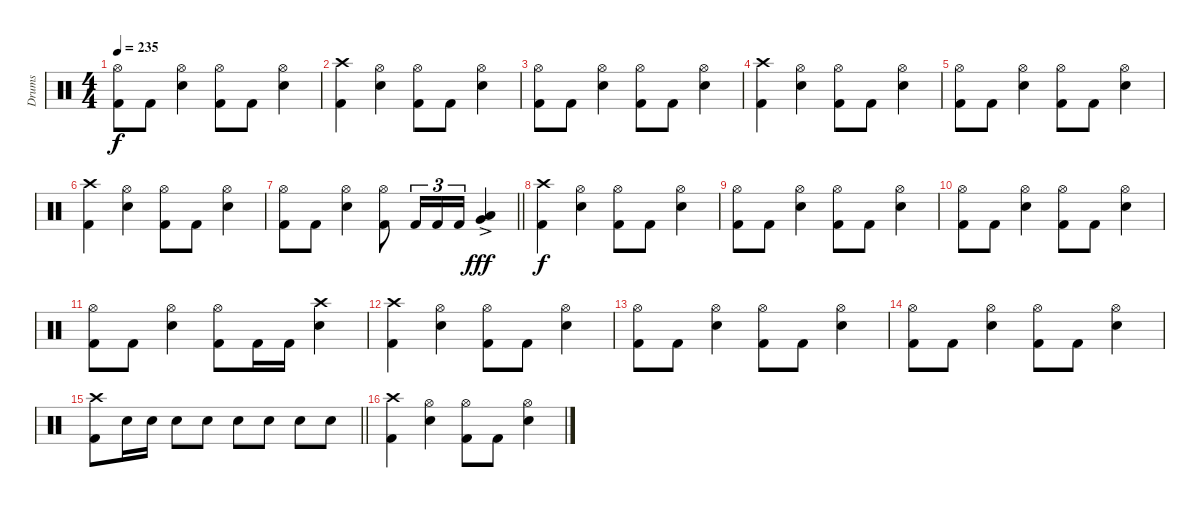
\track ("Drums" "Drums") {instrument percussion}
\staff {score}
\articulation defaults
\ts (4 4)
\tempo 235
\clef neutral
\ks c
("Hi-Hat (open)" "Kick (hit) 2").8{dy f} "Kick (hit) 2".8 ("Hi-Hat (open)" "Snare (hit) 2").4 ("Hi-Hat (open)" "Kick (hit) 2").8 "Kick (hit) 2".8 ("Hi-Hat (open)" "Snare (hit) 2").4 |
("Crash high (hit)" "Kick (hit) 2").4 ("Hi-Hat (open)" "Snare (hit) 2").4 ("Hi-Hat (open)" "Kick (hit) 2").8 "Kick (hit) 2".8 ("Hi-Hat (open)" "Snare (hit) 2").4 |
("Hi-Hat (open)" "Kick (hit) 2").8 "Kick (hit) 2".8 ("Hi-Hat (open)" "Snare (hit) 2").4 ("Hi-Hat (open)" "Kick (hit) 2").8 "Kick (hit) 2".8 ("Hi-Hat (open)" "Snare (hit) 2").4 |
("Crash high (hit)" "Kick (hit) 2").4 ("Hi-Hat (open)" "Snare (hit) 2").4 ("Hi-Hat (open)" "Kick (hit) 2").8 "Kick (hit) 2".8 ("Hi-Hat (open)" "Snare (hit) 2").4 |
("Hi-Hat (open)" "Kick (hit) 2").8 "Kick (hit) 2".8 ("Hi-Hat (open)" "Snare (hit) 2").4 ("Hi-Hat (open)" "Kick (hit) 2").8 "Kick (hit) 2".8 ("Hi-Hat (open)" "Snare (hit) 2").4 |
("Crash high (hit)" "Kick (hit) 2").4 ("Hi-Hat (open)" "Snare (hit) 2").4 ("Hi-Hat (open)" "Kick (hit) 2").8 "Kick (hit) 2".8 ("Hi-Hat (open)" "Snare (hit) 2").4 |
\barLineRight lightlight
("Hi-Hat (open)" "Kick (hit) 2").8 "Kick (hit) 2".8 ("Hi-Hat (open)" "Snare (hit) 2").4 ("Hi-Hat (open)" "Kick (hit) 2").8 "Kick (hit) 2".16{tu (3 2)} "Kick (hit) 2".16{tu (3 2)} "Kick (hit) 2".16{tu (3 2)} ("Low Tom (hit)"{ac} "Very Low Tom (hit)"{ac}).4{dy fff} |
("Crash high (hit)" "Kick (hit) 2").4{dy f} ("Hi-Hat (open)" "Snare (hit) 2").4 ("Hi-Hat (open)" "Kick (hit) 2").8 "Kick (hit) 2".8 ("Hi-Hat (open)" "Snare (hit) 2").4 |
("Hi-Hat (open)" "Kick (hit) 2").8 "Kick (hit) 2".8 ("Hi-Hat (open)" "Snare (hit) 2").4 ("Hi-Hat (open)" "Kick (hit) 2").8 "Kick (hit) 2".8 ("Hi-Hat (open)" "Snare (hit) 2").4 |
("Hi-Hat (open)" "Kick (hit) 2").8 "Kick (hit) 2".8 ("Hi-Hat (open)" "Snare (hit) 2").4 ("Hi-Hat (open)" "Kick (hit) 2").8 "Kick (hit) 2".8 ("Hi-Hat (open)" "Snare (hit) 2").4 |
("Hi-Hat (open)" "Kick (hit) 2").8 "Kick (hit) 2".8 ("Hi-Hat (open)" "Snare (hit) 2").4 ("Hi-Hat (open)" "Kick (hit) 2").8 "Kick (hit) 2".16 "Kick (hit) 2".16 ("Crash high (hit)" "Snare (hit) 2").4 |
("Crash high (hit)" "Kick (hit) 2").4 ("Hi-Hat (open)" "Snare (hit) 2").4 ("Hi-Hat (open)" "Kick (hit) 2").8 "Kick (hit) 2".8 ("Hi-Hat (open)" "Snare (hit) 2").4 |
("Hi-Hat (open)" "Kick (hit) 2").8 "Kick (hit) 2".8 ("Hi-Hat (open)" "Snare (hit) 2").4 ("Hi-Hat (open)" "Kick (hit) 2").8 "Kick (hit) 2".8 ("Hi-Hat (open)" "Snare (hit) 2").4 |
("Hi-Hat (open)" "Kick (hit) 2").8 "Kick (hit) 2".8 ("Hi-Hat (open)" "Snare (hit) 2").4 ("Hi-Hat (open)" "Kick (hit) 2").8 "Kick (hit) 2".8 ("Hi-Hat (open)" "Snare (hit) 2").4 |
\barLineRight lightlight
("Crash high (hit)" "Kick (hit) 2").8 "Snare (hit) 2".16 "Snare (hit) 2".16 "Snare (hit) 2".8 "Snare (hit) 2".8 "Snare (hit) 2".8 "Snare (hit) 2".8 "Snare (hit) 2".8 "Snare (hit) 2".8 |
("Crash high (hit)" "Kick (hit) 2").4 ("Hi-Hat (open)" "Snare (hit) 2").4 ("Hi-Hat (open)" "Kick (hit) 2").8 "Kick (hit) 2".8 ("Hi-Hat (open)" "Snare (hit) 2").4
